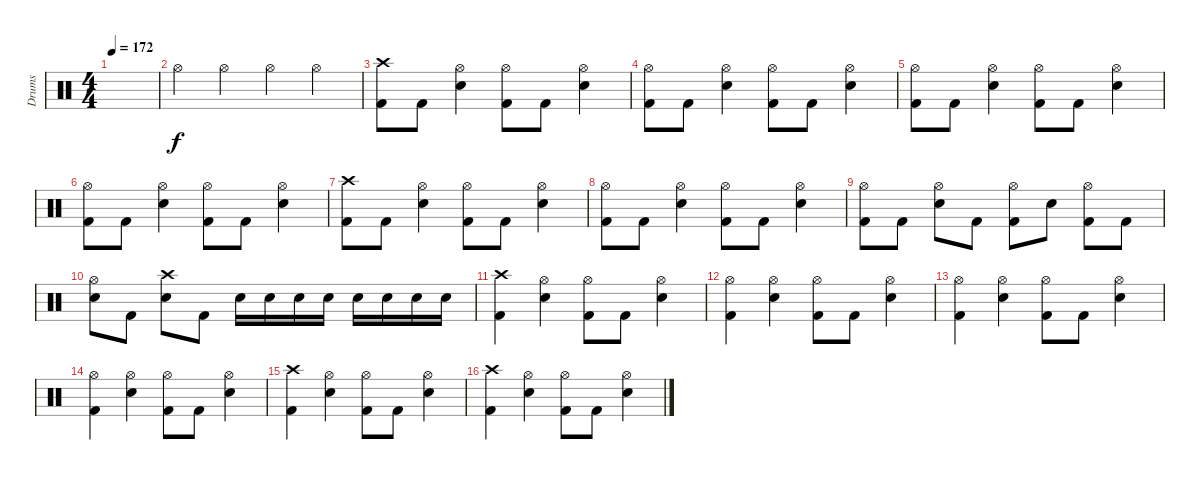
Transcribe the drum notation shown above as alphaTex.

\track ("Drums" "Drums") {instrument percussion}
\staff {score}
\articulation defaults
\ts (4 4)
\tempo 172
\clef neutral
\ks c
|
"Hi-Hat (open)".4 "Hi-Hat (open)".4 "Hi-Hat (open)".4 "Hi-Hat (open)".4 |
("Crash high (hit)" "Kick (hit) 2").8 "Kick (hit) 2".8 ("Hi-Hat (open)" "Electric Snare (hit)").4 ("Hi-Hat (open)" "Kick (hit) 2").8 "Kick (hit) 2".8 ("Hi-Hat (open)" "Electric Snare (hit)").4 |
("Hi-Hat (open)" "Kick (hit) 2").8 "Kick (hit) 2".8 ("Hi-Hat (open)" "Electric Snare (hit)").4 ("Hi-Hat (open)" "Kick (hit) 2").8 "Kick (hit) 2".8 ("Hi-Hat (open)" "Electric Snare (hit)").4 |
("Hi-Hat (open)" "Kick (hit) 2").8 "Kick (hit) 2".8 ("Hi-Hat (open)" "Electric Snare (hit)").4 ("Hi-Hat (open)" "Kick (hit) 2").8 "Kick (hit) 2".8 ("Hi-Hat (open)" "Electric Snare (hit)").4 |
("Hi-Hat (open)" "Kick (hit) 2").8 "Kick (hit) 2".8 ("Hi-Hat (open)" "Electric Snare (hit)").4 ("Hi-Hat (open)" "Kick (hit) 2").8 "Kick (hit) 2".8 ("Hi-Hat (open)" "Electric Snare (hit)").4 |
("Crash high (hit)" "Kick (hit) 2").8 "Kick (hit) 2".8 ("Hi-Hat (open)" "Electric Snare (hit)").4 ("Hi-Hat (open)" "Kick (hit) 2").8 "Kick (hit) 2".8 ("Hi-Hat (open)" "Electric Snare (hit)").4 |
("Hi-Hat (open)" "Kick (hit) 2").8 "Kick (hit) 2".8 ("Hi-Hat (open)" "Electric Snare (hit)").4 ("Hi-Hat (open)" "Kick (hit) 2").8 "Kick (hit) 2".8 ("Hi-Hat (open)" "Electric Snare (hit)").4 |
("Hi-Hat (open)" "Kick (hit) 2").8 "Kick (hit) 2".8 ("Hi-Hat (open)" "Electric Snare (hit)").8 "Kick (hit) 2".8 ("Hi-Hat (open)" "Kick (hit) 2").8 "Electric Snare (hit)".8 ("Hi-Hat (open)" "Kick (hit) 2").8 "Kick (hit) 2".8 |
("Hi-Hat (open)" "Electric Snare (hit)").8 "Kick (hit) 2".8 ("Crash high (hit)" "Electric Snare (hit)").8 "Kick (hit) 2".8 "Electric Snare (hit)".16 "Electric Snare (hit)".16 "Electric Snare (hit)".16 "Electric Snare (hit)".16 "Electric Snare (hit)".16 "Electric Snare (hit)".16 "Electric Snare (hit)".16 "Electric Snare (hit)".16 |
("Crash high (hit)" "Kick (hit) 2").4 ("Hi-Hat (open)" "Electric Snare (hit)").4 ("Hi-Hat (open)" "Kick (hit) 2").8 "Kick (hit) 2".8 ("Hi-Hat (open)" "Electric Snare (hit)").4 |
("Hi-Hat (open)" "Kick (hit) 2").4 ("Hi-Hat (open)" "Electric Snare (hit)").4 ("Hi-Hat (open)" "Kick (hit) 2").8 "Kick (hit) 2".8 ("Hi-Hat (open)" "Electric Snare (hit)").4 |
("Hi-Hat (open)" "Kick (hit) 2").4 ("Hi-Hat (open)" "Electric Snare (hit)").4 ("Hi-Hat (open)" "Kick (hit) 2").8 "Kick (hit) 2".8 ("Hi-Hat (open)" "Electric Snare (hit)").4 |
("Hi-Hat (open)" "Kick (hit) 2").4 ("Hi-Hat (open)" "Electric Snare (hit)").4 ("Hi-Hat (open)" "Kick (hit) 2").8 "Kick (hit) 2".8 ("Hi-Hat (open)" "Electric Snare (hit)").4 |
("Crash high (hit)" "Kick (hit) 2").4 ("Hi-Hat (open)" "Electric Snare (hit)").4 ("Hi-Hat (open)" "Kick (hit) 2").8 "Kick (hit) 2".8 ("Hi-Hat (open)" "Electric Snare (hit)").4 |
("Crash high (hit)" "Kick (hit) 2").4 ("Hi-Hat (open)" "Electric Snare (hit)").4 ("Hi-Hat (open)" "Kick (hit) 2").8 "Kick (hit) 2".8 ("Hi-Hat (open)" "Electric Snare (hit)").4
